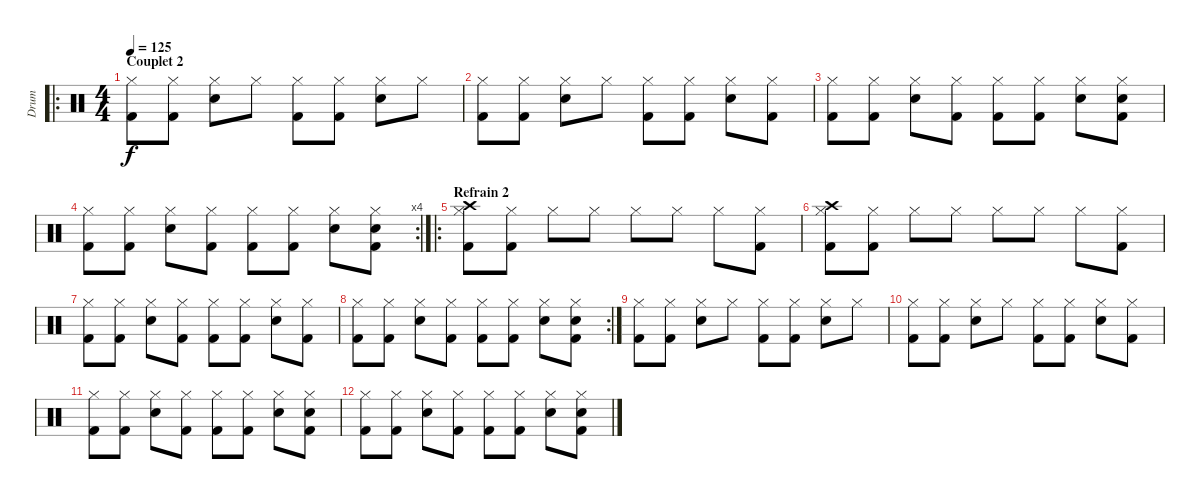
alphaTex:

\track ("Drum" "Drum") {instrument percussion}
\staff {score}
\articulation defaults
\ro
\ts (4 4)
\section ("" "Couplet 2")
\tempo 125
\clef neutral
\ks c
("Hi-Hat (closed)" "Kick (hit) 2").8{dy f} ("Hi-Hat (closed)" "Kick (hit) 2").8 ("Hi-Hat (closed)" "Electric Snare (hit)").8 "Hi-Hat (closed)".8 ("Hi-Hat (closed)" "Kick (hit) 2").8 ("Hi-Hat (closed)" "Kick (hit) 2").8 ("Hi-Hat (closed)" "Electric Snare (hit)").8 "Hi-Hat (closed)".8 |
("Hi-Hat (closed)" "Kick (hit) 2").8 ("Hi-Hat (closed)" "Kick (hit) 2").8 ("Hi-Hat (closed)" "Electric Snare (hit)").8 "Hi-Hat (closed)".8 ("Hi-Hat (closed)" "Kick (hit) 2").8 ("Hi-Hat (closed)" "Kick (hit) 2").8 ("Hi-Hat (closed)" "Electric Snare (hit)").8 ("Hi-Hat (closed)" "Kick (hit) 2").8 |
("Hi-Hat (closed)" "Kick (hit) 2").8 ("Hi-Hat (closed)" "Kick (hit) 2").8 ("Hi-Hat (closed)" "Electric Snare (hit)").8 ("Hi-Hat (closed)" "Kick (hit) 2").8 ("Hi-Hat (closed)" "Kick (hit) 2").8 ("Hi-Hat (closed)" "Kick (hit) 2").8 ("Hi-Hat (closed)" "Electric Snare (hit)").8 ("Hi-Hat (closed)" "Electric Snare (hit)" "Kick (hit) 2").8 |
\rc 4
("Hi-Hat (closed)" "Kick (hit) 2").8 ("Hi-Hat (closed)" "Kick (hit) 2").8 ("Hi-Hat (closed)" "Electric Snare (hit)").8 ("Hi-Hat (closed)" "Kick (hit) 2").8 ("Hi-Hat (closed)" "Kick (hit) 2").8 ("Hi-Hat (closed)" "Kick (hit) 2").8 ("Hi-Hat (closed)" "Electric Snare (hit)").8 ("Hi-Hat (closed)" "Electric Snare (hit)" "Kick (hit) 2").8 |
\ro
\section ("" "Refrain 2")
("Hi-Hat (closed)" "Crash high (hit)" "Kick (hit) 2").8 ("Hi-Hat (closed)" "Kick (hit) 2").8 "Hi-Hat (closed)".8 "Hi-Hat (closed)".8 "Hi-Hat (closed)".8 "Hi-Hat (closed)".8 "Hi-Hat (closed)".8 ("Hi-Hat (closed)" "Kick (hit) 2").8 |
("Hi-Hat (closed)" "Crash high (hit)" "Kick (hit) 2").8 ("Hi-Hat (closed)" "Kick (hit) 2").8 "Hi-Hat (closed)".8 "Hi-Hat (closed)".8 "Hi-Hat (closed)".8 "Hi-Hat (closed)".8 "Hi-Hat (closed)".8 ("Hi-Hat (closed)" "Kick (hit) 2").8 |
("Hi-Hat (closed)" "Kick (hit) 2").8 ("Hi-Hat (closed)" "Kick (hit) 2").8 ("Hi-Hat (closed)" "Electric Snare (hit)").8 ("Hi-Hat (closed)" "Kick (hit) 2").8 ("Hi-Hat (closed)" "Kick (hit) 2").8 ("Hi-Hat (closed)" "Kick (hit) 2").8 ("Hi-Hat (closed)" "Electric Snare (hit)").8 ("Hi-Hat (closed)" "Kick (hit) 2").8 |
\rc 2
("Hi-Hat (closed)" "Kick (hit) 2").8 ("Hi-Hat (closed)" "Kick (hit) 2").8 ("Hi-Hat (closed)" "Electric Snare (hit)").8 ("Hi-Hat (closed)" "Kick (hit) 2").8 ("Hi-Hat (closed)" "Kick (hit) 2").8 ("Hi-Hat (closed)" "Kick (hit) 2").8 ("Hi-Hat (closed)" "Electric Snare (hit)").8 ("Hi-Hat (closed)" "Electric Snare (hit)" "Kick (hit) 2").8 |
("Hi-Hat (closed)" "Kick (hit) 2").8{volume 9} ("Hi-Hat (closed)" "Kick (hit) 2").8 ("Hi-Hat (closed)" "Electric Snare (hit)").8 "Hi-Hat (closed)".8 ("Hi-Hat (closed)" "Kick (hit) 2").8 ("Hi-Hat (closed)" "Kick (hit) 2").8 ("Hi-Hat (closed)" "Electric Snare (hit)").8 "Hi-Hat (closed)".8 |
("Hi-Hat (closed)" "Kick (hit) 2").8 ("Hi-Hat (closed)" "Kick (hit) 2").8 ("Hi-Hat (closed)" "Electric Snare (hit)").8 "Hi-Hat (closed)".8 ("Hi-Hat (closed)" "Kick (hit) 2").8 ("Hi-Hat (closed)" "Kick (hit) 2").8 ("Hi-Hat (closed)" "Electric Snare (hit)").8 ("Hi-Hat (closed)" "Kick (hit) 2").8 |
("Hi-Hat (closed)" "Kick (hit) 2").8{volume 0} ("Hi-Hat (closed)" "Kick (hit) 2").8 ("Hi-Hat (closed)" "Electric Snare (hit)").8 ("Hi-Hat (closed)" "Kick (hit) 2").8 ("Hi-Hat (closed)" "Kick (hit) 2").8 ("Hi-Hat (closed)" "Kick (hit) 2").8 ("Hi-Hat (closed)" "Electric Snare (hit)").8 ("Hi-Hat (closed)" "Electric Snare (hit)" "Kick (hit) 2").8 |
("Hi-Hat (closed)" "Kick (hit) 2").8 ("Hi-Hat (closed)" "Kick (hit) 2").8 ("Hi-Hat (closed)" "Electric Snare (hit)").8 ("Hi-Hat (closed)" "Kick (hit) 2").8 ("Hi-Hat (closed)" "Kick (hit) 2").8 ("Hi-Hat (closed)" "Kick (hit) 2").8 ("Hi-Hat (closed)" "Electric Snare (hit)").8 ("Hi-Hat (closed)" "Electric Snare (hit)" "Kick (hit) 2").8
